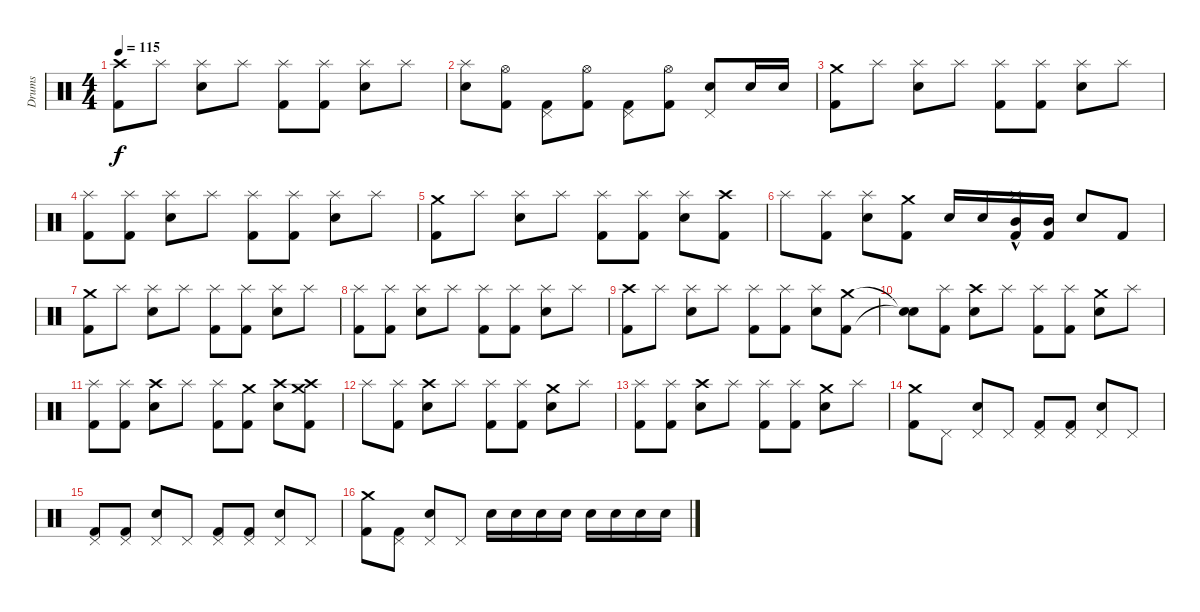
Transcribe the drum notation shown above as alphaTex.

\track ("Drums" "Drums") {instrument percussion}
\staff {score}
\articulation defaults
\ts (4 4)
\tempo 115
\clef neutral
\ks c
("Kick (hit) 2" "Crash high (hit)").8{dy f} "Splash (hit)".8 ("Snare (hit) 2" "Splash (hit)").8 "Splash (hit)".8 ("Splash (hit)" "Kick (hit) 2").8 ("Kick (hit) 2" "Splash (hit)").8 ("Snare (hit) 2" "Splash (hit)").8 "Splash (hit)".8 |
("Snare (hit) 2" "Splash (hit)").8 ("Kick (hit) 2" "Hi-Hat (open)").8 ("Kick (hit) 2" "Pedal Hi-Hat (hit)").8 ("Kick (hit) 2" "Hi-Hat (open)").8 ("Kick (hit) 2" "Pedal Hi-Hat (hit)").8 ("Kick (hit) 2" "Hi-Hat (open)").8 ("Snare (hit) 2" "Pedal Hi-Hat (hit)").8 "Snare (hit) 2".16 "Snare (hit) 2".16 |
("Kick (hit) 2" "Crash medium (hit)").8 "Splash (hit)".8 ("Splash (hit)" "Snare (hit) 2").8 "Splash (hit)".8 ("Splash (hit)" "Kick (hit) 2").8 ("Splash (hit)" "Kick (hit) 2").8 ("Splash (hit)" "Snare (hit) 2").8 "Splash (hit)".8 |
("Splash (hit)" "Kick (hit) 2").8 ("Splash (hit)" "Kick (hit) 2").8 ("Splash (hit)" "Snare (hit) 2").8 "Splash (hit)".8 ("Splash (hit)" "Kick (hit) 2").8 ("Splash (hit)" "Kick (hit) 2").8 ("Splash (hit)" "Snare (hit) 2").8 "Splash (hit)".8 |
("Crash medium (hit)" "Kick (hit) 2").8 "Splash (hit)".8 ("Splash (hit)" "Snare (hit) 2").8 "Splash (hit)".8 ("Splash (hit)" "Kick (hit) 2").8 ("Splash (hit)" "Kick (hit) 2").8 ("Splash (hit)" "Snare (hit) 2").8 ("Crash high (hit)" "Kick (hit) 2").8 |
"Splash (hit)".8 ("Splash (hit)" "Kick (hit) 2").8 ("Splash (hit)" "Snare (hit) 2").8 ("Kick (hit) 2" "Crash medium (hit)").8 "Snare (hit) 2".16 "Snare (hit) 2".16 ("Splash (hit)"{hac} "Mid Tom (hit)" "Kick (hit) 2").16 ("Mid Tom (hit)" "Kick (hit) 2").16 "Snare (hit) 2".8 "Kick (hit) 2".8 |
("Crash medium (hit)" "Kick (hit) 2").8 "Splash (hit)".8 ("Splash (hit)" "Snare (hit) 2").8 "Splash (hit)".8 ("Splash (hit)" "Kick (hit) 2").8 ("Splash (hit)" "Kick (hit) 2").8 ("Splash (hit)" "Snare (hit) 2").8 "Splash (hit)".8 |
("Splash (hit)" "Kick (hit) 2").8 ("Splash (hit)" "Kick (hit) 2").8 ("Splash (hit)" "Snare (hit) 2").8 "Splash (hit)".8 ("Splash (hit)" "Kick (hit) 2").8 ("Splash (hit)" "Kick (hit) 2").8 ("Splash (hit)" "Snare (hit) 2").8 "Splash (hit)".8 |
("Kick (hit) 2" "Crash high (hit)").8 "Splash (hit)".8 ("Splash (hit)" "Snare (hit) 2").8 "Splash (hit)".8 ("Splash (hit)" "Kick (hit) 2").8 ("Splash (hit)" "Kick (hit) 2").8 ("Splash (hit)" "Snare (hit) 2").8 ("Kick (hit) 2" "Crash medium (hit)").8 |
("Snare (hit)"{t} "Snare (hit)"{t}).8 ("Splash (hit)" "Kick (hit) 2").8 ("Snare (hit) 2" "Crash high (hit)").8 "Splash (hit)".8 ("Splash (hit)" "Kick (hit) 2").8 ("Splash (hit)" "Kick (hit) 2").8 ("Snare (hit) 2" "Crash medium (hit)").8 "Splash (hit)".8 |
("Splash (hit)" "Kick (hit) 2").8 ("Splash (hit)" "Kick (hit) 2").8 ("Snare (hit) 2" "Crash high (hit)").8 "Splash (hit)".8 ("Kick (hit) 2" "Splash (hit)").8 ("Kick (hit) 2" "Crash medium (hit)").8 ("Snare (hit) 2" "Crash high (hit)").8 ("Kick (hit) 2" "Crash high (hit)" "Crash medium (hit)").8 |
"Splash (hit)".8 ("Splash (hit)" "Kick (hit) 2").8 ("Snare (hit) 2" "Crash high (hit)").8 "Splash (hit)".8 ("Splash (hit)" "Kick (hit) 2").8 ("Splash (hit)" "Kick (hit) 2").8 ("Snare (hit) 2" "Crash medium (hit)").8 "Splash (hit)".8 |
("Kick (hit) 2" "Splash (hit)").8 ("Kick (hit) 2" "Splash (hit)").8 ("Snare (hit) 2" "Crash high (hit)").8 "Splash (hit)".8 ("Kick (hit) 2" "Splash (hit)").8 ("Kick (hit) 2" "Splash (hit)").8 ("Snare (hit) 2" "Crash medium (hit)").8 "Splash (hit)".8 |
("Kick (hit) 2" "Crash medium (hit)").8 "Pedal Hi-Hat (hit)".8 ("Pedal Hi-Hat (hit)" "Snare (hit) 2").8 "Pedal Hi-Hat (hit)".8 ("Pedal Hi-Hat (hit)" "Kick (hit) 2").8 ("Pedal Hi-Hat (hit)" "Kick (hit) 2").8 ("Pedal Hi-Hat (hit)" "Snare (hit) 2").8 "Pedal Hi-Hat (hit)".8 |
("Pedal Hi-Hat (hit)" "Kick (hit) 2").8 ("Pedal Hi-Hat (hit)" "Kick (hit) 2").8 ("Pedal Hi-Hat (hit)" "Snare (hit) 2").8 "Pedal Hi-Hat (hit)".8 ("Pedal Hi-Hat (hit)" "Kick (hit) 2").8 ("Pedal Hi-Hat (hit)" "Kick (hit) 2").8 ("Pedal Hi-Hat (hit)" "Snare (hit) 2").8 "Pedal Hi-Hat (hit)".8 |
("Kick (hit) 2" "Crash medium (hit)").8 ("Pedal Hi-Hat (hit)" "Kick (hit) 2").8 ("Pedal Hi-Hat (hit)" "Snare (hit) 2").8 "Pedal Hi-Hat (hit)".8 "Snare (hit) 2".16 "Snare (hit) 2".16 "Snare (hit) 2".16 "Snare (hit) 2".16 "Snare (hit) 2".16 "Snare (hit) 2".16 "Snare (hit) 2".16 "Snare (hit) 2".16
